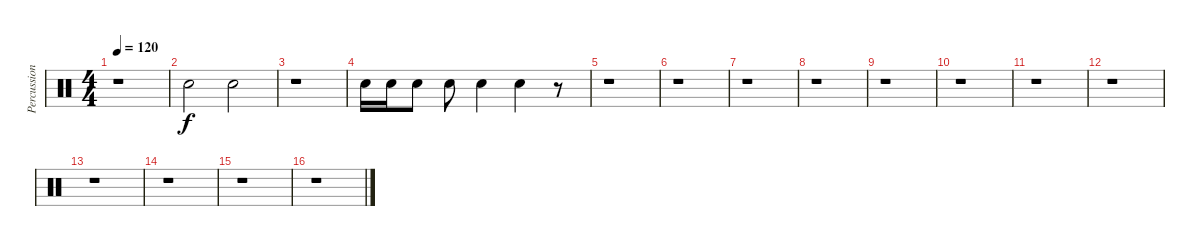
\track ("Percussion" "Percussion") {instrument percussion}
\staff {score}
\articulation defaults
\ts (4 4)
\tempo 120
\clef neutral
\ks c
r.1{dy f} |
"Snare (hit) 2".2 "Snare (hit) 2".2 |
r.1 |
"Snare (hit) 2".16 "Snare (hit) 2".16 "Snare (hit) 2".8 "Snare (hit) 2".8 "Snare (hit) 2".4 "Snare (hit) 2".4 r.8 |
r.1 |
r.1 |
r.1 |
r.1 |
r.1 |
r.1 |
r.1 |
r.1 |
r.1 |
r.1 |
r.1 |
r.1
